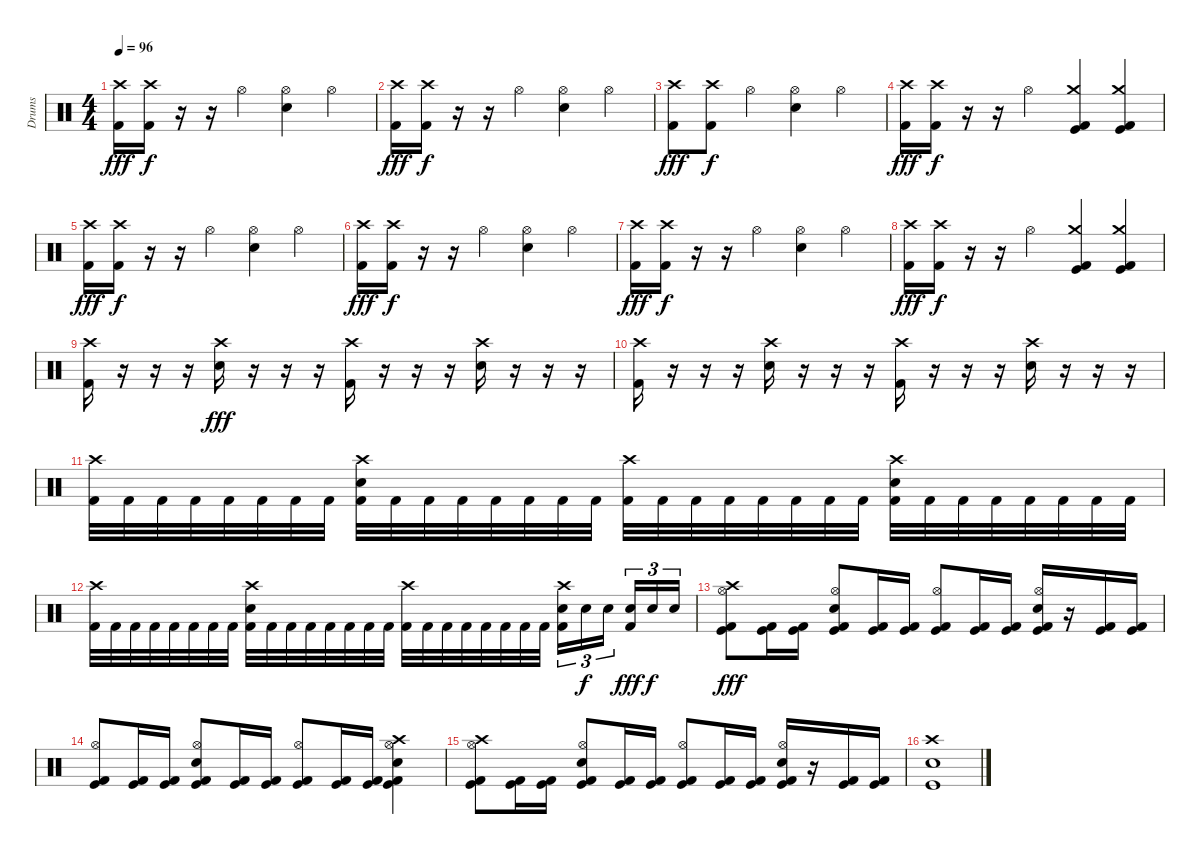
\track ("Drums" "Drums") {instrument percussion}
\staff {score}
\articulation defaults
\ts (4 4)
\tempo 96
\clef neutral
\ks c
("Crash high (hit)" "Kick (hit) 2").16{dy fff} ("Crash high (hit)" "Kick (hit) 2").16{dy f} r.16 r.16 "Hi-Hat (open)".4 ("Hi-Hat (open)" "Snare (hit) 2").4 "Hi-Hat (open)".4 |
("Crash high (hit)" "Kick (hit) 2").16{dy fff} ("Crash high (hit)" "Kick (hit) 2").16{dy f} r.16 r.16 "Hi-Hat (open)".4 ("Hi-Hat (open)" "Snare (hit) 2").4 "Hi-Hat (open)".4 |
("Crash high (hit)" "Kick (hit) 2").8{dy fff} ("Crash high (hit)" "Kick (hit) 2").8{dy f} "Hi-Hat (open)".4 ("Hi-Hat (open)" "Snare (hit) 2").4 "Hi-Hat (open)".4 |
("Crash high (hit)" "Kick (hit) 2").16{dy fff} ("Crash high (hit)" "Kick (hit) 2").16{dy f} r.16 r.16 "Hi-Hat (open)".4 ("Crash medium (hit)" "Kick (hit)" "Kick (hit) 2").4 ("Crash medium (hit)" "Kick (hit)" "Kick (hit) 2").4 |
("Crash high (hit)" "Kick (hit) 2").16{dy fff} ("Crash high (hit)" "Kick (hit) 2").16{dy f} r.16 r.16 "Hi-Hat (open)".4 ("Hi-Hat (open)" "Snare (hit) 2").4 "Hi-Hat (open)".4 |
("Crash high (hit)" "Kick (hit) 2").16{dy fff} ("Crash high (hit)" "Kick (hit) 2").16{dy f} r.16 r.16 "Hi-Hat (open)".4 ("Hi-Hat (open)" "Snare (hit) 2").4 "Hi-Hat (open)".4 |
("Crash high (hit)" "Kick (hit) 2").16{dy fff} ("Crash high (hit)" "Kick (hit) 2").16{dy f} r.16 r.16 "Hi-Hat (open)".4 ("Hi-Hat (open)" "Snare (hit) 2").4 "Hi-Hat (open)".4 |
("Crash high (hit)" "Kick (hit) 2").16{dy fff} ("Crash high (hit)" "Kick (hit) 2").16{dy f} r.16 r.16 "Hi-Hat (open)".4 ("Crash medium (hit)" "Kick (hit)" "Kick (hit) 2").4 ("Crash medium (hit)" "Kick (hit)" "Kick (hit) 2").4 |
("Crash high (hit)" "Kick (hit) 2").16 r.16 r.16 r.16 ("Crash high (hit)" "Snare (hit) 2").16{dy fff} r.16 r.16 r.16 ("Crash high (hit)" "Kick (hit) 2").16 r.16 r.16 r.16 ("Crash high (hit)" "Snare (hit) 2").16 r.16 r.16 r.16 |
("Crash high (hit)" "Kick (hit) 2").16 r.16 r.16 r.16 ("Crash high (hit)" "Snare (hit) 2").16 r.16 r.16 r.16 ("Crash high (hit)" "Kick (hit) 2").16 r.16 r.16 r.16 ("Crash high (hit)" "Snare (hit) 2").16 r.16 r.16 r.16 |
("Crash high (hit)" "Kick (hit) 2").32 "Kick (hit) 2".32 "Kick (hit) 2".32 "Kick (hit) 2".32 "Kick (hit) 2".32 "Kick (hit) 2".32 "Kick (hit) 2".32 "Kick (hit) 2".32 ("Crash high (hit)" "Snare (hit) 2" "Kick (hit) 2").32 "Kick (hit) 2".32 "Kick (hit) 2".32 "Kick (hit) 2".32 "Kick (hit) 2".32 "Kick (hit) 2".32 "Kick (hit) 2".32 "Kick (hit) 2".32 ("Crash high (hit)" "Kick (hit) 2").32 "Kick (hit) 2".32 "Kick (hit) 2".32 "Kick (hit) 2".32 "Kick (hit) 2".32 "Kick (hit) 2".32 "Kick (hit) 2".32 "Kick (hit) 2".32 ("Crash high (hit)" "Snare (hit) 2" "Kick (hit) 2").32 "Kick (hit) 2".32 "Kick (hit) 2".32 "Kick (hit) 2".32 "Kick (hit) 2".32 "Kick (hit) 2".32 "Kick (hit) 2".32 "Kick (hit) 2".32 |
("Crash high (hit)" "Kick (hit) 2").32 "Kick (hit) 2".32 "Kick (hit) 2".32 "Kick (hit) 2".32 "Kick (hit) 2".32 "Kick (hit) 2".32 "Kick (hit) 2".32 "Kick (hit) 2".32 ("Crash high (hit)" "Snare (hit) 2" "Kick (hit) 2").32 "Kick (hit) 2".32 "Kick (hit) 2".32 "Kick (hit) 2".32 "Kick (hit) 2".32 "Kick (hit) 2".32 "Kick (hit) 2".32 "Kick (hit) 2".32 ("Crash high (hit)" "Kick (hit) 2").32 "Kick (hit) 2".32 "Kick (hit) 2".32 "Kick (hit) 2".32 "Kick (hit) 2".32 "Kick (hit) 2".32 "Kick (hit) 2".32 "Kick (hit) 2".32 ("Crash high (hit)" "Snare (hit) 2" "Kick (hit) 2").16{tu (3 2)} "Snare (hit) 2".16{tu (3 2) dy f} "Snare (hit) 2".16{tu (3 2) beam splitsecondary} ("Snare (hit) 2" "Kick (hit) 2").16{tu (3 2) dy fff} "Snare (hit) 2".16{tu (3 2) dy f} "Snare (hit) 2".16{tu (3 2)} |
("Crash high (hit)" "Kick (hit)" "Kick (hit) 2" "Hi-Hat (open)").8{dy fff} ("Kick (hit)" "Kick (hit) 2").16 ("Kick (hit)" "Kick (hit) 2").16 ("Snare (hit) 2" "Kick (hit)" "Kick (hit) 2" "Hi-Hat (open)").8 ("Kick (hit)" "Kick (hit) 2").16 ("Kick (hit)" "Kick (hit) 2").16 ("Kick (hit)" "Kick (hit) 2" "Hi-Hat (open)").8 ("Kick (hit)" "Kick (hit) 2").16 ("Kick (hit)" "Kick (hit) 2").16 ("Snare (hit) 2" "Kick (hit)" "Kick (hit) 2" "Hi-Hat (open)").16 r.16 ("Kick (hit)" "Kick (hit) 2").16 ("Kick (hit)" "Kick (hit) 2").16 |
("Kick (hit)" "Kick (hit) 2" "Hi-Hat (open)").8 ("Kick (hit)" "Kick (hit) 2").16 ("Kick (hit)" "Kick (hit) 2").16 ("Snare (hit) 2" "Kick (hit)" "Kick (hit) 2" "Hi-Hat (open)").8 ("Kick (hit)" "Kick (hit) 2").16 ("Kick (hit)" "Kick (hit) 2").16 ("Kick (hit)" "Kick (hit) 2" "Hi-Hat (open)").8 ("Kick (hit)" "Kick (hit) 2").16 ("Kick (hit)" "Kick (hit) 2").16 ("Crash high (hit)" "Snare (hit) 2" "Kick (hit)" "Kick (hit) 2" "Hi-Hat (open)").4 |
("Crash high (hit)" "Kick (hit)" "Kick (hit) 2" "Hi-Hat (open)").8 ("Kick (hit)" "Kick (hit) 2").16 ("Kick (hit)" "Kick (hit) 2").16 ("Snare (hit) 2" "Kick (hit)" "Kick (hit) 2" "Hi-Hat (open)").8 ("Kick (hit)" "Kick (hit) 2").16 ("Kick (hit)" "Kick (hit) 2").16 ("Kick (hit)" "Kick (hit) 2" "Hi-Hat (open)").8 ("Kick (hit)" "Kick (hit) 2").16 ("Kick (hit)" "Kick (hit) 2").16 ("Snare (hit) 2" "Kick (hit)" "Kick (hit) 2" "Hi-Hat (open)").16 r.16 ("Kick (hit)" "Kick (hit) 2").16 ("Kick (hit)" "Kick (hit) 2").16 |
("Crash high (hit)" "Kick (hit)" "Snare (hit) 2").1
